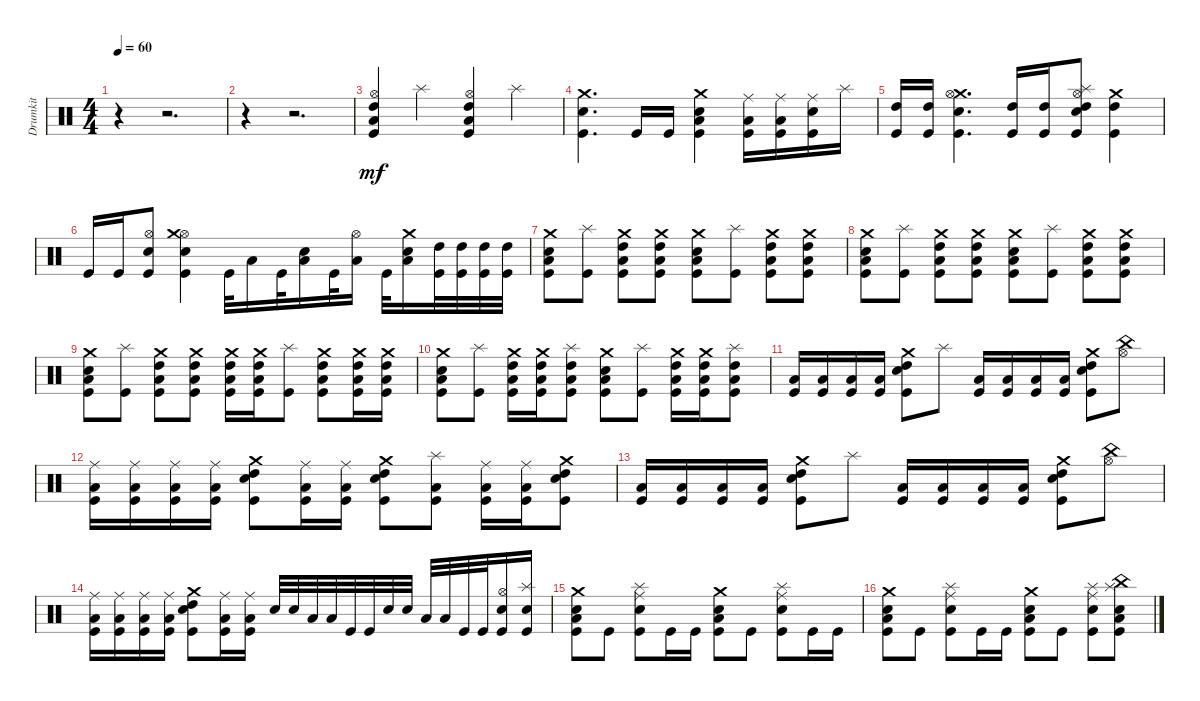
\track ("Drumkit" "Drumkit") {instrument percussion}
\staff {score}
\articulation defaults
\ts (4 4)
\tempo 60
\clef neutral
\ks c
r.4{dy mf} r.2{d} |
r.4 r.2{d} |
("Kick (hit)" "Low Tom (hit)" "Hi-Hat (open)" "High Tom (hit)").4 "Splash (hit)".4 ("Kick (hit)" "Low Tom (hit)" "Hi-Hat (open)" "High Tom (hit)").4 "Splash (hit)".4 |
("Kick (hit)" "Snare (hit) 2" "Crash medium (hit)").4{d} "Kick (hit)".16 "Kick (hit)".16 ("Kick (hit)" "Snare (hit) 2" "Crash medium (hit)" "Low Tom (hit)").4 ("Kick (hit)" "Low Tom (hit)" "Ride (middle)").16 ("Kick (hit)" "Low Tom (hit)" "Ride (middle)").16 ("Kick (hit)" "Ride (middle)" "Snare (hit) 2").16 "Splash (hit)".16 |
("Kick (hit)" "High Tom (hit)").16 ("Kick (hit)" "High Tom (hit)").16 ("Kick (hit)" "Snare (hit) 2" "Crash medium (hit)" "Hi-Hat (open)").4{d} ("Kick (hit)" "High Tom (hit)").16 ("Kick (hit)" "High Tom (hit)").16 ("Kick (hit)" "Snare (hit) 2" "Hi-Hat (open)" "Splash (hit)" "High Tom (hit)").8 ("Kick (hit)" "High Tom (hit)" "Crash medium (hit)").4 |
"Kick (hit)".16 "Kick (hit)".16 ("Kick (hit)" "Snare (hit) 2" "Hi-Hat (open)").8 ("Kick (hit)" "Snare (hit) 2" "Hi-Hat (open)" "Crash medium (hit)").4 "Kick (hit)".32 "Low Tom (hit)".16 "Kick (hit)".32 ("Low Tom (hit)" "Snare (hit) 2").16 "Kick (hit)".32 ("Low Tom (hit)" "Hi-Hat (open)").16 "Kick (hit)".32 ("Low Tom (hit)" "Snare (hit) 2" "Crash medium (hit)").16 ("Kick (hit)" "High Tom (hit)").32 ("Kick (hit)" "High Tom (hit)").32 ("Kick (hit)" "High Tom (hit)").32 ("Kick (hit)" "High Tom (hit)").32 |
("Kick (hit)" "Snare (hit) 2" "Crash medium (hit)" "Low Tom (hit)").8 ("Kick (hit)" "Splash (hit)").8 ("Kick (hit)" "Crash medium (hit)" "Low Tom (hit)" "High Tom (hit)").8 ("Kick (hit)" "Crash medium (hit)" "Low Tom (hit)" "High Tom (hit)").8 ("Kick (hit)" "Snare (hit) 2" "Crash medium (hit)" "Low Tom (hit)").8 ("Kick (hit)" "Splash (hit)").8 ("Kick (hit)" "Crash medium (hit)" "Low Tom (hit)" "High Tom (hit)").8 ("Kick (hit)" "Crash medium (hit)" "Low Tom (hit)" "High Tom (hit)").8 |
("Kick (hit)" "Snare (hit) 2" "Crash medium (hit)" "Low Tom (hit)").8 ("Kick (hit)" "Splash (hit)").8 ("Kick (hit)" "Crash medium (hit)" "Low Tom (hit)" "High Tom (hit)").8 ("Kick (hit)" "Crash medium (hit)" "Low Tom (hit)" "High Tom (hit)").8 ("Kick (hit)" "Snare (hit) 2" "Crash medium (hit)" "Low Tom (hit)").8 ("Kick (hit)" "Splash (hit)").8 ("Kick (hit)" "Crash medium (hit)" "Low Tom (hit)" "High Tom (hit)").8 ("Kick (hit)" "Crash medium (hit)" "Low Tom (hit)" "High Tom (hit)").8 |
("Kick (hit)" "Snare (hit) 2" "Crash medium (hit)" "Low Tom (hit)").8 ("Kick (hit)" "Splash (hit)").8 ("Kick (hit)" "Crash medium (hit)" "Low Tom (hit)" "High Tom (hit)").8 ("Kick (hit)" "Crash medium (hit)" "Low Tom (hit)" "High Tom (hit)").8 ("Kick (hit)" "Crash medium (hit)" "Low Tom (hit)" "High Tom (hit)").16 ("Kick (hit)" "Crash medium (hit)" "Low Tom (hit)" "High Tom (hit)").16 ("Kick (hit)" "Splash (hit)").8 ("Kick (hit)" "Crash medium (hit)" "Low Tom (hit)" "High Tom (hit)").8 ("Kick (hit)" "Crash medium (hit)" "Low Tom (hit)" "High Tom (hit)").16 ("Kick (hit)" "Crash medium (hit)" "Low Tom (hit)" "High Tom (hit)").16 |
("Kick (hit)" "Snare (hit) 2" "Crash medium (hit)" "Low Tom (hit)").8 ("Kick (hit)" "Splash (hit)").8 ("Kick (hit)" "Crash medium (hit)" "Low Tom (hit)" "High Tom (hit)").16 ("Kick (hit)" "Crash medium (hit)" "Low Tom (hit)" "High Tom (hit)").16 ("Kick (hit)" "Splash (hit)" "High Tom (hit)" "Low Tom (hit)").8 ("Kick (hit)" "Snare (hit) 2" "Crash medium (hit)" "Low Tom (hit)").8 ("Kick (hit)" "Splash (hit)").8 ("Kick (hit)" "Crash medium (hit)" "Low Tom (hit)" "High Tom (hit)").16 ("Kick (hit)" "Crash medium (hit)" "Low Tom (hit)" "High Tom (hit)").16 ("Kick (hit)" "Splash (hit)" "High Tom (hit)" "Low Tom (hit)").8 |
("Kick (hit)" "Low Tom (hit)").16 ("Kick (hit)" "Low Tom (hit)").16 ("Kick (hit)" "Low Tom (hit)").16 ("Kick (hit)" "Low Tom (hit)").16 ("Kick (hit)" "Snare (hit) 2" "Crash medium (hit)" "High Tom (hit)").8 "Splash (hit)".8 ("Kick (hit)" "Low Tom (hit)").16 ("Kick (hit)" "Low Tom (hit)").16 ("Kick (hit)" "Low Tom (hit)").16 ("Kick (hit)" "Low Tom (hit)").16 ("Kick (hit)" "Snare (hit) 2" "Crash medium (hit)" "High Tom (hit)").8 ("China (hit)" "Hi-Hat (open)").8 |
("Kick (hit)" "Low Tom (hit)" "Ride (middle)").16 ("Kick (hit)" "Low Tom (hit)" "Ride (middle)").16 ("Kick (hit)" "Low Tom (hit)" "Ride (middle)").16 ("Kick (hit)" "Low Tom (hit)" "Ride (middle)").16 ("Kick (hit)" "Snare (hit) 2" "Crash medium (hit)" "High Tom (hit)").8 ("Kick (hit)" "Low Tom (hit)" "Ride (middle)").16 ("Kick (hit)" "Low Tom (hit)" "Ride (middle)").16 ("Kick (hit)" "Snare (hit) 2" "Crash medium (hit)" "High Tom (hit)").8 ("Kick (hit)" "Low Tom (hit)" "Splash (hit)").8 ("Kick (hit)" "Low Tom (hit)" "Ride (middle)").16 ("Kick (hit)" "Low Tom (hit)" "Ride (middle)").16 ("Kick (hit)" "Snare (hit) 2" "Crash medium (hit)" "High Tom (hit)").8 |
("Kick (hit)" "Low Tom (hit)").16 ("Kick (hit)" "Low Tom (hit)").16 ("Kick (hit)" "Low Tom (hit)").16 ("Kick (hit)" "Low Tom (hit)").16 ("Kick (hit)" "Snare (hit) 2" "Crash medium (hit)" "High Tom (hit)").8 "Splash (hit)".8 ("Kick (hit)" "Low Tom (hit)").16 ("Kick (hit)" "Low Tom (hit)").16 ("Kick (hit)" "Low Tom (hit)").16 ("Kick (hit)" "Low Tom (hit)").16 ("Kick (hit)" "Snare (hit) 2" "Crash medium (hit)" "High Tom (hit)").8 ("China (hit)" "Hi-Hat (open)").8 |
("Kick (hit)" "Low Tom (hit)" "Ride (middle)").16 ("Kick (hit)" "Low Tom (hit)" "Ride (middle)").16 ("Kick (hit)" "Low Tom (hit)" "Ride (middle)").16 ("Kick (hit)" "Low Tom (hit)" "Ride (middle)").16 ("Kick (hit)" "Snare (hit) 2" "Crash medium (hit)" "High Tom (hit)").8 ("Kick (hit)" "Low Tom (hit)" "Ride (middle)").16 ("Kick (hit)" "Low Tom (hit)" "Ride (middle)").16 "Snare (hit) 2".32 "Snare (hit) 2".32 "Low Tom (hit)".32 "Low Tom (hit)".32 "Kick (hit)".32 "Kick (hit)".32 "Snare (hit) 2".32 "Snare (hit) 2".32 "Low Tom (hit)".32 "Low Tom (hit)".32 "Kick (hit)".32 "Kick (hit)".32 ("Kick (hit)" "Snare (hit) 2" "Hi-Hat (open)").16 ("Kick (hit)" "Snare (hit) 2" "Splash (hit)").16 |
("Kick (hit)" "Snare (hit) 2" "Crash medium (hit)" "Low Tom (hit)").8 "Kick (hit)".8 ("Kick (hit)" "Snare (hit) 2" "Splash (hit)" "Ride (middle)").8 "Kick (hit)".16 "Kick (hit)".16 ("Kick (hit)" "Snare (hit) 2" "Crash medium (hit)" "Low Tom (hit)").8 "Kick (hit)".8 ("Kick (hit)" "Snare (hit) 2" "Splash (hit)" "Ride (middle)").8 "Kick (hit)".16 "Kick (hit)".16 |
("Kick (hit)" "Snare (hit) 2" "Crash medium (hit)" "Low Tom (hit)").8 "Kick (hit)".8 ("Kick (hit)" "Snare (hit) 2" "Splash (hit)" "Ride (middle)").8 "Kick (hit)".16 "Kick (hit)".16 ("Kick (hit)" "Snare (hit) 2" "Crash medium (hit)" "Low Tom (hit)").8 "Kick (hit)".8 ("Kick (hit)" "Snare (hit) 2" "Splash (hit)" "Ride (middle)").8 ("Kick (hit)" "Snare (hit) 2" "Splash (hit)" "China (hit)" "Low Tom (hit)").8
